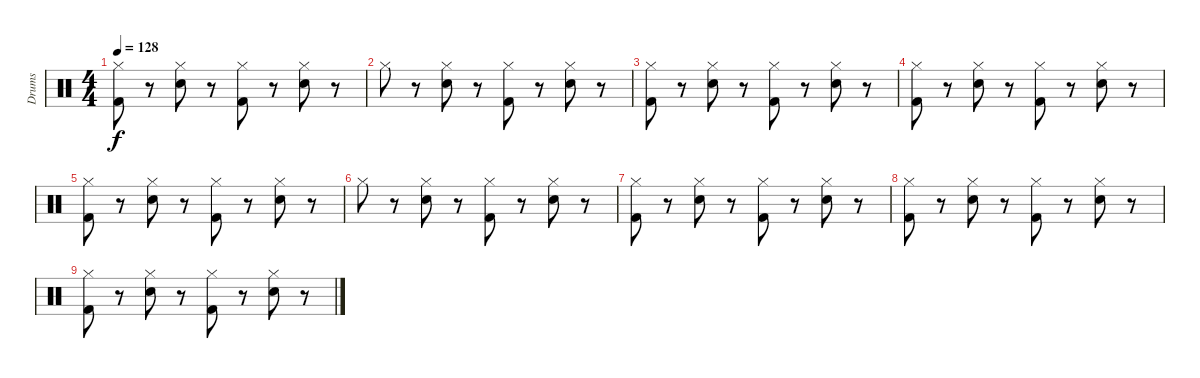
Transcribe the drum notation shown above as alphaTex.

\track ("Drums" "Drums") {instrument percussion}
\staff {score}
\articulation defaults
\ts (4 4)
\tempo 128
\clef neutral
\ks c
("Hi-Hat (closed)" "Kick (hit) 2").8{dy f} r.8 ("Hi-Hat (closed)" "Snare (hit) 2").8 r.8 ("Hi-Hat (closed)" "Kick (hit) 2").8 r.8 ("Hi-Hat (closed)" "Snare (hit) 2").8 r.8 |
"Hi-Hat (closed)".8 r.8 ("Hi-Hat (closed)" "Snare (hit) 2").8 r.8 ("Hi-Hat (closed)" "Kick (hit) 2").8 r.8 ("Hi-Hat (closed)" "Snare (hit) 2").8 r.8 |
("Hi-Hat (closed)" "Kick (hit) 2").8 r.8 ("Hi-Hat (closed)" "Snare (hit) 2").8 r.8 ("Hi-Hat (closed)" "Kick (hit) 2").8 r.8 ("Hi-Hat (closed)" "Snare (hit) 2").8 r.8 |
("Hi-Hat (closed)" "Kick (hit) 2").8 r.8 ("Hi-Hat (closed)" "Snare (hit) 2").8 r.8 ("Hi-Hat (closed)" "Kick (hit) 2").8 r.8 ("Hi-Hat (closed)" "Snare (hit) 2").8 r.8 |
("Hi-Hat (closed)" "Kick (hit) 2").8 r.8 ("Hi-Hat (closed)" "Snare (hit) 2").8 r.8 ("Hi-Hat (closed)" "Kick (hit) 2").8 r.8 ("Hi-Hat (closed)" "Snare (hit) 2").8 r.8 |
"Hi-Hat (closed)".8 r.8 ("Hi-Hat (closed)" "Snare (hit) 2").8 r.8 ("Hi-Hat (closed)" "Kick (hit) 2").8 r.8 ("Hi-Hat (closed)" "Snare (hit) 2").8 r.8 |
("Hi-Hat (closed)" "Kick (hit) 2").8 r.8 ("Hi-Hat (closed)" "Snare (hit) 2").8 r.8 ("Hi-Hat (closed)" "Kick (hit) 2").8 r.8 ("Hi-Hat (closed)" "Snare (hit) 2").8 r.8 |
("Hi-Hat (closed)" "Kick (hit) 2").8 r.8 ("Hi-Hat (closed)" "Snare (hit) 2").8 r.8 ("Hi-Hat (closed)" "Kick (hit) 2").8 r.8 ("Hi-Hat (closed)" "Snare (hit) 2").8 r.8 |
("Hi-Hat (closed)" "Kick (hit) 2").8 r.8 ("Hi-Hat (closed)" "Snare (hit) 2").8 r.8 ("Hi-Hat (closed)" "Kick (hit) 2").8 r.8 ("Hi-Hat (closed)" "Snare (hit) 2").8 r.8
